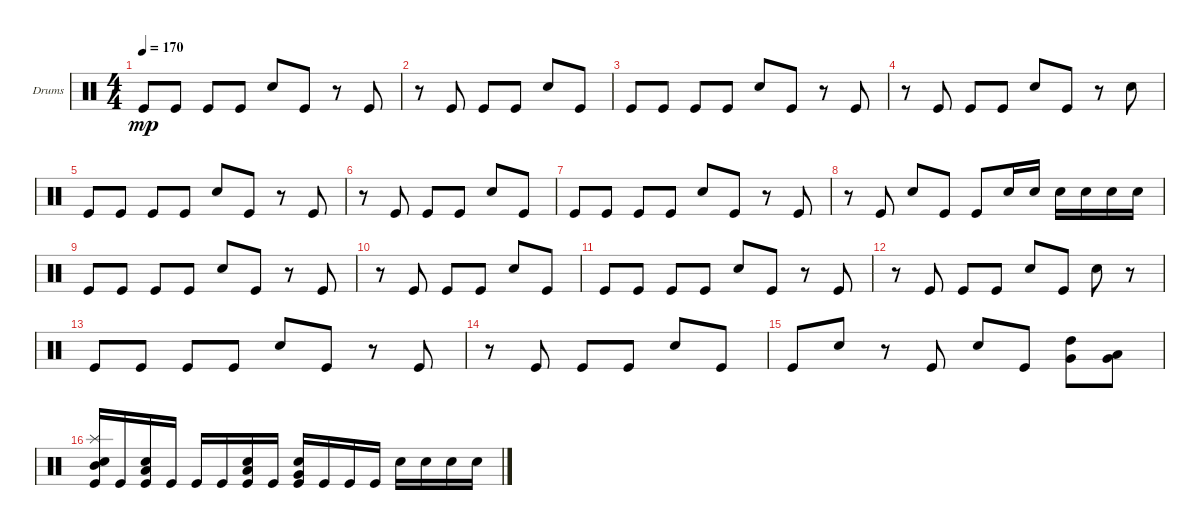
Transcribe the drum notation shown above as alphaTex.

\defaultSystemsLayout 4
\bracketExtendMode groupsimilarinstruments
\firstSystemTrackNameOrientation horizontal
\otherSystemsTrackNameOrientation horizontal
\track ("Ray" "Drums") {instrument percussion}
\staff {score}
\articulation defaults
\ts (4 4)
\tempo 170
\clef neutral
\ks c "Kick (hit)".8{dy mp} "Kick (hit)".8 "Kick (hit)".8 "Kick (hit)".8 "Snare (hit) 2".8 "Kick (hit)".8
r.8 "Kick (hit)".8 |
r.8 "Kick (hit)".8 "Kick (hit)".8 "Kick (hit)".8 "Snare (hit) 2".8 "Kick (hit)".8 |
"Kick (hit)".8 "Kick (hit)".8 "Kick (hit)".8 "Kick (hit)".8 "Snare (hit) 2".8 "Kick (hit)".8 r.8 "Kick (hit)".8 |
r.8 "Kick (hit)".8 "Kick (hit)".8 "Kick (hit)".8 "Snare (hit) 2".8 "Kick (hit)".8 r.8 "Snare (hit) 2".8 |
"Kick (hit)".8 "Kick (hit)".8 "Kick (hit)".8 "Kick (hit)".8 "Snare (hit) 2".8 "Kick (hit)".8 r.8 "Kick (hit)".8 |
r.8 "Kick (hit)".8 "Kick (hit)".8 "Kick (hit)".8 "Snare (hit) 2".8 "Kick (hit)".8 |
"Kick (hit)".8 "Kick (hit)".8 "Kick (hit)".8 "Kick (hit)".8 "Snare (hit) 2".8 "Kick (hit)".8 r.8 "Kick (hit)".8 |
r.8 "Kick (hit)".8 "Snare (hit) 2".8 "Kick (hit)".8 "Kick (hit)".8 "Snare (hit) 2".16 "Snare (hit) 2".16 "Snare (hit) 2".16 "Snare (hit) 2".16 "Snare (hit) 2".16 "Snare (hit) 2".16 |
"Kick (hit)".8 "Kick (hit)".8 "Kick (hit)".8 "Kick (hit)".8 "Snare (hit) 2".8 "Kick (hit)".8 r.8 "Kick (hit)".8 |
r.8 "Kick (hit)".8 "Kick (hit)".8 "Kick (hit)".8 "Snare (hit) 2".8 "Kick (hit)".8 |
"Kick (hit)".8 "Kick (hit)".8 "Kick (hit)".8 "Kick (hit)".8 "Snare (hit) 2".8 "Kick (hit)".8 r.8 "Kick (hit)".8 |
r.8 "Kick (hit)".8 "Kick (hit)".8 "Kick (hit)".8 "Snare (hit) 2".8 "Kick (hit)".8 "Snare (hit) 2".8 r.8 |
"Kick (hit)".8 "Kick (hit)".8 "Kick (hit)".8 "Kick (hit)".8 "Snare (hit) 2".8 "Kick (hit)".8 r.8 "Kick (hit)".8 |
r.8 "Kick (hit)".8 "Kick (hit)".8 "Kick (hit)".8 "Snare (hit) 2".8 "Kick (hit)".8 |
"Kick (hit)".8 "Snare (hit) 2".8 r.8 "Kick (hit)".8 "Snare (hit) 2".8 "Kick (hit)".8 ("Very Low Tom (hit)" "High Tom (hit)").8 ("Very Low Tom (hit)" "Low Tom (hit)").8 |
("Splash (hit)" "Kick (hit)" "Snare (hit) 2" "Mid Tom (hit)").16 "Kick (hit)".16 ("Snare (hit) 2" "Low Tom (hit)" "Kick (hit)").16 "Kick (hit)".16 "Kick (hit)".16 "Kick (hit)".16 ("Snare (hit) 2" "Low Tom (hit)" "Kick (hit)").16 "Kick (hit)".16 ("Snare (hit) 2" "Very Low Tom (hit)" "Kick (hit)").16 "Kick (hit)".16 "Kick (hit)".16 "Kick (hit)".16 "Snare (hit) 2".16 "Snare (hit) 2".16 "Snare (hit) 2".16 "Snare (hit) 2".16
